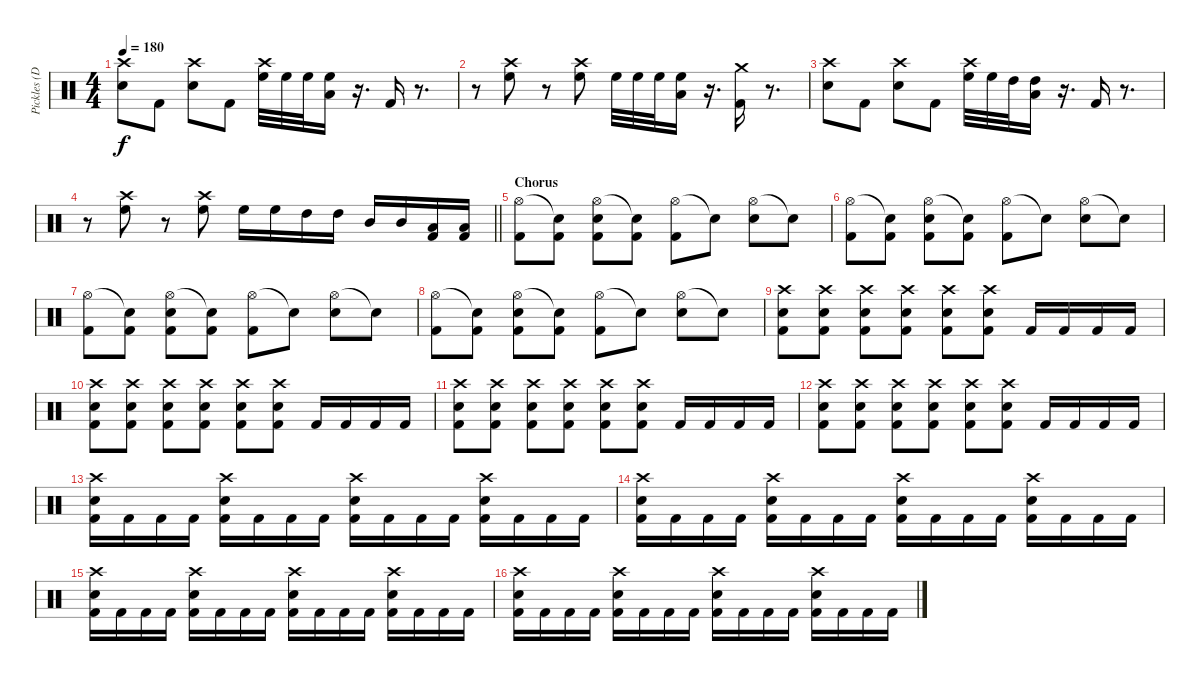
\track ("Pickles (Drums)" "Pickles (D") {instrument percussion}
\staff {score}
\articulation defaults
\ts (4 4)
\tempo 180
\clef neutral
\ks c
("Crash high (hit)" "Snare (hit) 2").8{dy f} "Kick (hit) 2".8 ("Crash high (hit)" "Snare (hit) 2").8 "Kick (hit) 2".8 ("Crash high (hit)" "High Floor Tom (hit)").32 "High Floor Tom (hit)".32 "High Floor Tom (hit)".32 ("High Floor Tom (hit)" "Low Tom (hit)").16 r.16{d} "Kick (hit) 2".16 r.8{d} |
r.8 ("Crash high (hit)" "High Floor Tom (hit)").8 r.8 ("Crash high (hit)" "High Floor Tom (hit)").8 "High Floor Tom (hit)".32 "High Floor Tom (hit)".32 "High Floor Tom (hit)".32 ("High Floor Tom (hit)" "Low Tom (hit)").16 r.16{d} ("Crash medium (hit)" "Kick (hit) 2").16 r.8{d} |
("Crash high (hit)" "Snare (hit) 2").8 "Kick (hit) 2".8 ("Crash high (hit)" "Snare (hit) 2").8 "Kick (hit) 2".8 ("Crash high (hit)" "High Floor Tom (hit)").32 "High Floor Tom (hit)".32 "High Tom (hit)".32 ("High Tom (hit)" "Low Tom (hit)").16 r.16{d} "Kick (hit) 2".16 r.8{d} |
\barLineRight lightlight
r.8 ("Crash high (hit)" "High Floor Tom (hit)").8 r.8 ("Crash high (hit)" "High Floor Tom (hit)").8 "High Floor Tom (hit)".16 "High Floor Tom (hit)".16 "High Tom (hit)".16 "High Tom (hit)".16 "Mid Tom (hit)".16 "Mid Tom (hit)".16 ("Low Tom (hit)" "Kick (hit) 2").16 ("Low Tom (hit)" "Kick (hit) 2").16 |
\section ("" "Chorus")
("Hi-Hat (open)" "Kick (hit) 2").8 ("Snare (hit)"{t} "Kick (hit) 2").8 ("Hi-Hat (open)" "Snare (hit) 2" "Kick (hit) 2").8 ("Snare (hit)"{t} "Kick (hit) 2").8 ("Hi-Hat (open)" "Kick (hit) 2").8 "Snare (hit)"{t}.8 ("Hi-Hat (open)" "Snare (hit) 2").8 "Snare (hit)"{t}.8 |
("Hi-Hat (open)" "Kick (hit) 2").8 ("Snare (hit)"{t} "Kick (hit) 2").8 ("Hi-Hat (open)" "Snare (hit) 2" "Kick (hit) 2").8 ("Snare (hit)"{t} "Kick (hit) 2").8 ("Hi-Hat (open)" "Kick (hit) 2").8 "Snare (hit)"{t}.8 ("Hi-Hat (open)" "Snare (hit) 2").8 "Snare (hit)"{t}.8 |
("Hi-Hat (open)" "Kick (hit) 2").8 ("Snare (hit)"{t} "Kick (hit) 2").8 ("Hi-Hat (open)" "Snare (hit) 2" "Kick (hit) 2").8 ("Snare (hit)"{t} "Kick (hit) 2").8 ("Hi-Hat (open)" "Kick (hit) 2").8 "Snare (hit)"{t}.8 ("Hi-Hat (open)" "Snare (hit) 2").8 "Snare (hit)"{t}.8 |
("Hi-Hat (open)" "Kick (hit) 2").8 ("Snare (hit)"{t} "Kick (hit) 2").8 ("Hi-Hat (open)" "Snare (hit) 2" "Kick (hit) 2").8 ("Snare (hit)"{t} "Kick (hit) 2").8 ("Hi-Hat (open)" "Kick (hit) 2").8 "Snare (hit)"{t}.8 ("Hi-Hat (open)" "Snare (hit) 2").8 "Snare (hit)"{t}.8 |
("Crash high (hit)" "Snare (hit) 2" "Kick (hit) 2").8 ("Crash high (hit)" "Snare (hit) 2" "Kick (hit) 2").8 ("Crash high (hit)" "Snare (hit) 2" "Kick (hit) 2").8 ("Crash high (hit)" "Snare (hit) 2" "Kick (hit) 2").8 ("Crash high (hit)" "Snare (hit) 2" "Kick (hit) 2").8 ("Crash high (hit)" "Snare (hit) 2" "Kick (hit) 2").8 "Kick (hit) 2".16 "Kick (hit) 2".16 "Kick (hit) 2".16 "Kick (hit) 2".16 |
("Crash high (hit)" "Snare (hit) 2" "Kick (hit) 2").8 ("Crash high (hit)" "Snare (hit) 2" "Kick (hit) 2").8 ("Crash high (hit)" "Snare (hit) 2" "Kick (hit) 2").8 ("Crash high (hit)" "Snare (hit) 2" "Kick (hit) 2").8 ("Crash high (hit)" "Snare (hit) 2" "Kick (hit) 2").8 ("Crash high (hit)" "Snare (hit) 2" "Kick (hit) 2").8 "Kick (hit) 2".16 "Kick (hit) 2".16 "Kick (hit) 2".16 "Kick (hit) 2".16 |
("Crash high (hit)" "Snare (hit) 2" "Kick (hit) 2").8 ("Crash high (hit)" "Snare (hit) 2" "Kick (hit) 2").8 ("Crash high (hit)" "Snare (hit) 2" "Kick (hit) 2").8 ("Crash high (hit)" "Snare (hit) 2" "Kick (hit) 2").8 ("Crash high (hit)" "Snare (hit) 2" "Kick (hit) 2").8 ("Crash high (hit)" "Snare (hit) 2" "Kick (hit) 2").8 "Kick (hit) 2".16 "Kick (hit) 2".16 "Kick (hit) 2".16 "Kick (hit) 2".16 |
("Crash high (hit)" "Snare (hit) 2" "Kick (hit) 2").8 ("Crash high (hit)" "Snare (hit) 2" "Kick (hit) 2").8 ("Crash high (hit)" "Snare (hit) 2" "Kick (hit) 2").8 ("Crash high (hit)" "Snare (hit) 2" "Kick (hit) 2").8 ("Crash high (hit)" "Snare (hit) 2" "Kick (hit) 2").8 ("Crash high (hit)" "Snare (hit) 2" "Kick (hit) 2").8 "Kick (hit) 2".16 "Kick (hit) 2".16 "Kick (hit) 2".16 "Kick (hit) 2".16 |
("Crash high (hit)" "Snare (hit) 2" "Kick (hit) 2").16 "Kick (hit) 2".16 "Kick (hit) 2".16 "Kick (hit) 2".16 ("Crash high (hit)" "Snare (hit) 2" "Kick (hit) 2").16 "Kick (hit) 2".16 "Kick (hit) 2".16 "Kick (hit) 2".16 ("Crash high (hit)" "Snare (hit) 2" "Kick (hit) 2").16 "Kick (hit) 2".16 "Kick (hit) 2".16 "Kick (hit) 2".16 ("Crash high (hit)" "Snare (hit) 2" "Kick (hit) 2").16 "Kick (hit) 2".16 "Kick (hit) 2".16 "Kick (hit) 2".16 |
("Crash high (hit)" "Snare (hit) 2" "Kick (hit) 2").16 "Kick (hit) 2".16 "Kick (hit) 2".16 "Kick (hit) 2".16 ("Crash high (hit)" "Snare (hit) 2" "Kick (hit) 2").16 "Kick (hit) 2".16 "Kick (hit) 2".16 "Kick (hit) 2".16 ("Crash high (hit)" "Snare (hit) 2" "Kick (hit) 2").16 "Kick (hit) 2".16 "Kick (hit) 2".16 "Kick (hit) 2".16 ("Crash high (hit)" "Snare (hit) 2" "Kick (hit) 2").16 "Kick (hit) 2".16 "Kick (hit) 2".16 "Kick (hit) 2".16 |
("Crash high (hit)" "Snare (hit) 2" "Kick (hit) 2").16 "Kick (hit) 2".16 "Kick (hit) 2".16 "Kick (hit) 2".16 ("Crash high (hit)" "Snare (hit) 2" "Kick (hit) 2").16 "Kick (hit) 2".16 "Kick (hit) 2".16 "Kick (hit) 2".16 ("Crash high (hit)" "Snare (hit) 2" "Kick (hit) 2").16 "Kick (hit) 2".16 "Kick (hit) 2".16 "Kick (hit) 2".16 ("Crash high (hit)" "Snare (hit) 2" "Kick (hit) 2").16 "Kick (hit) 2".16 "Kick (hit) 2".16 "Kick (hit) 2".16 |
("Crash high (hit)" "Snare (hit) 2" "Kick (hit) 2").16 "Kick (hit) 2".16 "Kick (hit) 2".16 "Kick (hit) 2".16 ("Crash high (hit)" "Snare (hit) 2" "Kick (hit) 2").16 "Kick (hit) 2".16 "Kick (hit) 2".16 "Kick (hit) 2".16 ("Crash high (hit)" "Snare (hit) 2" "Kick (hit) 2").16 "Kick (hit) 2".16 "Kick (hit) 2".16 "Kick (hit) 2".16 ("Crash high (hit)" "Snare (hit) 2" "Kick (hit) 2").16 "Kick (hit) 2".16 "Kick (hit) 2".16 "Kick (hit) 2".16
